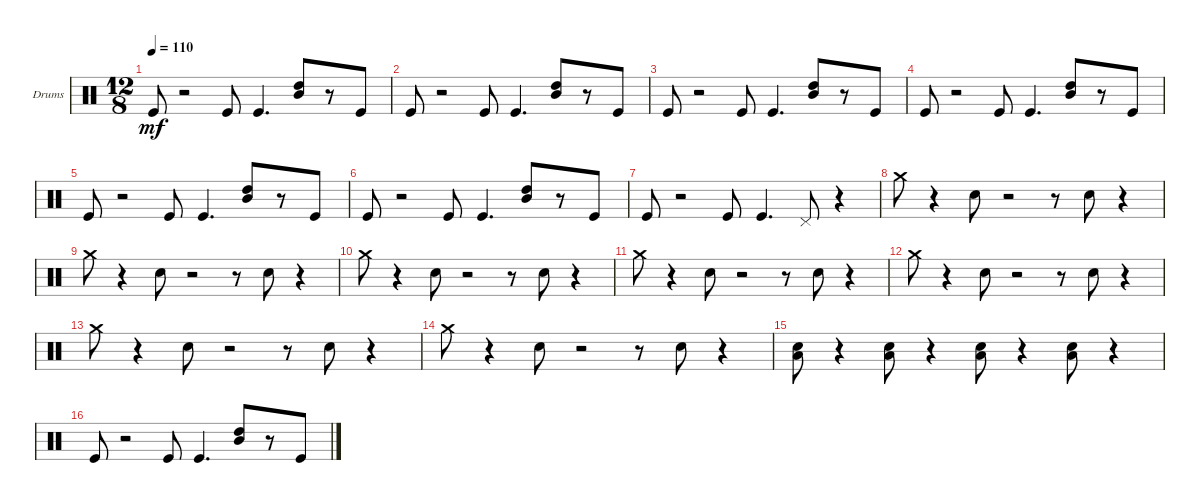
\bracketExtendMode groupsimilarinstruments
\firstSystemTrackNameOrientation horizontal
\otherSystemsTrackNameOrientation horizontal
\track ("Drum Set" "Drums") {instrument percussion}
\staff {score}
\articulation defaults
\ts (12 8)
\tempo 110
\clef neutral
\ks c "Kick (hit)".8{dy mf}
r.2 "Kick (hit)".8 "Kick (hit)".4{d} ("Mid Tom (hit)" "High Tom (hit)").8 r.8 "Kick (hit)".8 |
"Kick (hit)".8 r.2 "Kick (hit)".8 "Kick (hit)".4{d} ("Mid Tom (hit)" "High Tom (hit)").8 r.8 "Kick (hit)".8 |
"Kick (hit)".8 r.2 "Kick (hit)".8 "Kick (hit)".4{d} ("Mid Tom (hit)" "High Tom (hit)").8 r.8 "Kick (hit)".8 |
"Kick (hit)".8 r.2 "Kick (hit)".8 "Kick (hit)".4{d} ("Mid Tom (hit)" "High Tom (hit)").8 r.8 "Kick (hit)".8 |
"Kick (hit)".8 r.2 "Kick (hit)".8 "Kick (hit)".4{d} ("Mid Tom (hit)" "High Tom (hit)").8 r.8 "Kick (hit)".8 |
"Kick (hit)".8 r.2 "Kick (hit)".8 "Kick (hit)".4{d} ("Mid Tom (hit)" "High Tom (hit)").8 r.8 "Kick (hit)".8 |
"Kick (hit)".8 r.2 "Kick (hit)".8 "Kick (hit)".4{d} "Pedal Hi-Hat (hit)".8 r.4 |
"Crash medium (hit)".8 r.4 "Snare (hit) 2".8 r.2 r.8 "Snare (hit) 2".8 r.4 |
"Crash medium (hit)".8 r.4 "Snare (hit) 2".8 r.2 r.8 "Snare (hit) 2".8 r.4 |
"Crash medium (hit)".8 r.4 "Snare (hit) 2".8 r.2 r.8 "Snare (hit) 2".8 r.4 |
"Crash medium (hit)".8 r.4 "Snare (hit) 2".8 r.2 r.8 "Snare (hit) 2".8 r.4 |
"Crash medium (hit)".8 r.4 "Snare (hit) 2".8 r.2 r.8 "Snare (hit) 2".8 r.4 |
"Crash medium (hit)".8 r.4 "Snare (hit) 2".8 r.2 r.8 "Snare (hit) 2".8 r.4 |
"Crash medium (hit)".8 r.4 "Snare (hit) 2".8 r.2 r.8 "Snare (hit) 2".8 r.4 |
("Low Tom (hit)" "Snare (hit) 2").8 r.4 ("Low Tom (hit)" "Snare (hit) 2").8 r.4 ("Low Tom (hit)" "Snare (hit) 2").8 r.4 ("Low Tom (hit)" "Snare (hit) 2").8 r.4 |
"Kick (hit)".8 r.2 "Kick (hit)".8 "Kick (hit)".4{d} ("Mid Tom (hit)" "High Tom (hit)").8 r.8 "Kick (hit)".8
